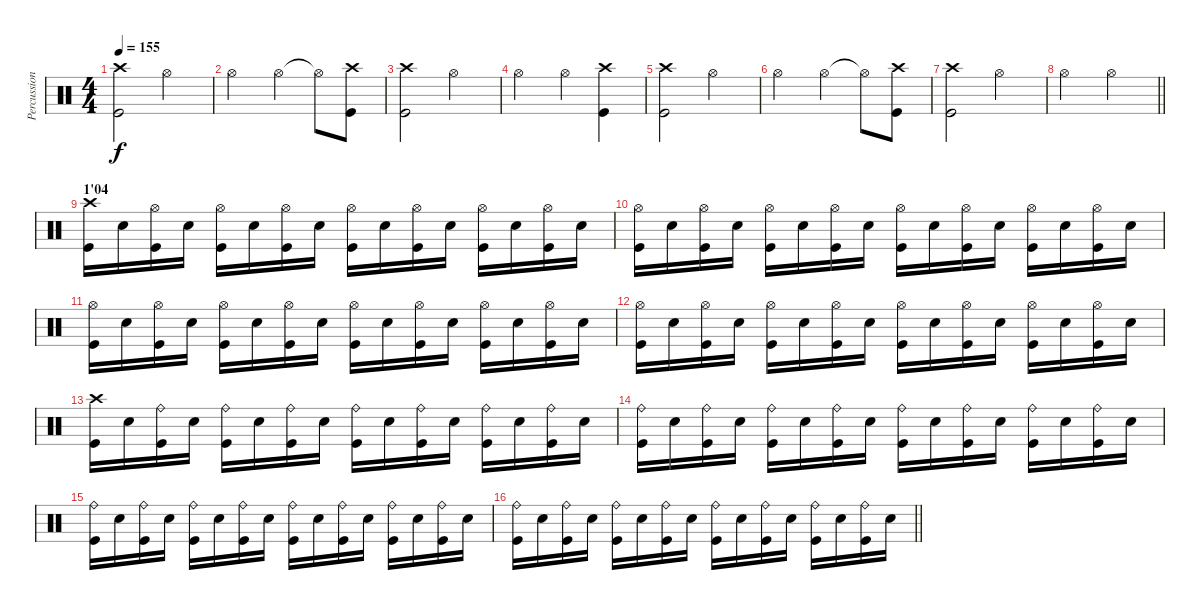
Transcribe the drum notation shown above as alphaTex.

\track ("Percussions" "Percussion") {instrument percussion}
\staff {score}
\articulation defaults
\ts (4 4)
\tempo 155
\clef neutral
\ks c
("Crash high (hit)" "Kick (hit)").2{dy f} "Hi-Hat (open)".2 |
"Hi-Hat (open)".2 "Hi-Hat (open)".4 "Hi-Hat (open)"{t}.8 ("Crash high (hit)" "Kick (hit)").8 |
("Crash high (hit)" "Kick (hit)").2 "Hi-Hat (open)".2 |
"Hi-Hat (open)".2 "Hi-Hat (open)".4 ("Crash high (hit)" "Kick (hit)").4 |
("Crash high (hit)" "Kick (hit)").2 "Hi-Hat (open)".2 |
"Hi-Hat (open)".2 "Hi-Hat (open)".4 "Hi-Hat (open)"{t}.8 ("Crash high (hit)" "Kick (hit)").8 |
("Crash high (hit)" "Kick (hit)").2 "Hi-Hat (open)".2 |
\barLineRight lightlight "Hi-Hat (open)".2 "Hi-Hat (open)".2
|
\section ("" "1'04")
("Crash high (hit)" "Kick (hit)").16 "Electric Snare (hit)".16 ("Hi-Hat (open)" "Kick (hit)").16 "Electric Snare (hit)".16 ("Hi-Hat (open)" "Kick (hit)").16 "Electric Snare (hit)".16 ("Hi-Hat (open)" "Kick (hit)").16 "Electric Snare (hit)".16 ("Hi-Hat (open)" "Kick (hit)").16 "Electric Snare (hit)".16 ("Hi-Hat (open)" "Kick (hit)").16 "Electric Snare (hit)".16 ("Hi-Hat (open)" "Kick (hit)").16 "Electric Snare (hit)".16 ("Hi-Hat (open)" "Kick (hit)").16 "Electric Snare (hit)".16 |
("Hi-Hat (open)" "Kick (hit)").16 "Electric Snare (hit)".16 ("Hi-Hat (open)" "Kick (hit)").16 "Electric Snare (hit)".16 ("Hi-Hat (open)" "Kick (hit)").16 "Electric Snare (hit)".16 ("Hi-Hat (open)" "Kick (hit)").16 "Electric Snare (hit)".16 ("Hi-Hat (open)" "Kick (hit)").16 "Electric Snare (hit)".16 ("Hi-Hat (open)" "Kick (hit)").16 "Electric Snare (hit)".16 ("Hi-Hat (open)" "Kick (hit)").16 "Electric Snare (hit)".16 ("Hi-Hat (open)" "Kick (hit)").16 "Electric Snare (hit)".16 |
("Hi-Hat (open)" "Kick (hit)").16 "Electric Snare (hit)".16 ("Hi-Hat (open)" "Kick (hit)").16 "Electric Snare (hit)".16 ("Hi-Hat (open)" "Kick (hit)").16 "Electric Snare (hit)".16 ("Hi-Hat (open)" "Kick (hit)").16 "Electric Snare (hit)".16 ("Hi-Hat (open)" "Kick (hit)").16 "Electric Snare (hit)".16 ("Hi-Hat (open)" "Kick (hit)").16 "Electric Snare (hit)".16 ("Hi-Hat (open)" "Kick (hit)").16 "Electric Snare (hit)".16 ("Hi-Hat (open)" "Kick (hit)").16 "Electric Snare (hit)".16 |
("Hi-Hat (open)" "Kick (hit)").16 "Electric Snare (hit)".16 ("Hi-Hat (open)" "Kick (hit)").16 "Electric Snare (hit)".16 ("Hi-Hat (open)" "Kick (hit)").16 "Electric Snare (hit)".16 ("Hi-Hat (open)" "Kick (hit)").16 "Electric Snare (hit)".16 ("Hi-Hat (open)" "Kick (hit)").16 "Electric Snare (hit)".16 ("Hi-Hat (open)" "Kick (hit)").16 "Electric Snare (hit)".16 ("Hi-Hat (open)" "Kick (hit)").16 "Electric Snare (hit)".16 ("Hi-Hat (open)" "Kick (hit)").16 "Electric Snare (hit)".16 |
("Crash high (hit)" "Kick (hit)").16 "Electric Snare (hit)".16 ("Ride (bell)" "Kick (hit)").16 "Electric Snare (hit)".16 ("Ride (bell)" "Kick (hit)").16 "Electric Snare (hit)".16 ("Ride (bell)" "Kick (hit)").16 "Electric Snare (hit)".16 ("Ride (bell)" "Kick (hit)").16 "Electric Snare (hit)".16 ("Ride (bell)" "Kick (hit)").16 "Electric Snare (hit)".16 ("Ride (bell)" "Kick (hit)").16 "Electric Snare (hit)".16 ("Ride (bell)" "Kick (hit)").16 "Electric Snare (hit)".16 |
("Ride (bell)" "Kick (hit)").16 "Electric Snare (hit)".16 ("Ride (bell)" "Kick (hit)").16 "Electric Snare (hit)".16 ("Ride (bell)" "Kick (hit)").16 "Electric Snare (hit)".16 ("Ride (bell)" "Kick (hit)").16 "Electric Snare (hit)".16 ("Ride (bell)" "Kick (hit)").16 "Electric Snare (hit)".16 ("Ride (bell)" "Kick (hit)").16 "Electric Snare (hit)".16 ("Ride (bell)" "Kick (hit)").16 "Electric Snare (hit)".16 ("Ride (bell)" "Kick (hit)").16 "Electric Snare (hit)".16 |
("Ride (bell)" "Kick (hit)").16 "Electric Snare (hit)".16 ("Ride (bell)" "Kick (hit)").16 "Electric Snare (hit)".16 ("Ride (bell)" "Kick (hit)").16 "Electric Snare (hit)".16 ("Ride (bell)" "Kick (hit)").16 "Electric Snare (hit)".16 ("Ride (bell)" "Kick (hit)").16 "Electric Snare (hit)".16 ("Ride (bell)" "Kick (hit)").16 "Electric Snare (hit)".16 ("Ride (bell)" "Kick (hit)").16 "Electric Snare (hit)".16 ("Ride (bell)" "Kick (hit)").16 "Electric Snare (hit)".16 |
\barLineRight lightlight
("Ride (bell)" "Kick (hit)").16 "Electric Snare (hit)".16 ("Ride (bell)" "Kick (hit)").16 "Electric Snare (hit)".16 ("Ride (bell)" "Kick (hit)").16 "Electric Snare (hit)".16 ("Ride (bell)" "Kick (hit)").16 "Electric Snare (hit)".16 ("Ride (bell)" "Kick (hit)").16 "Electric Snare (hit)".16 ("Ride (bell)" "Kick (hit)").16 "Electric Snare (hit)".16 ("Ride (bell)" "Kick (hit)").16 "Electric Snare (hit)".16 ("Ride (bell)" "Kick (hit)").16 "Electric Snare (hit)".16
